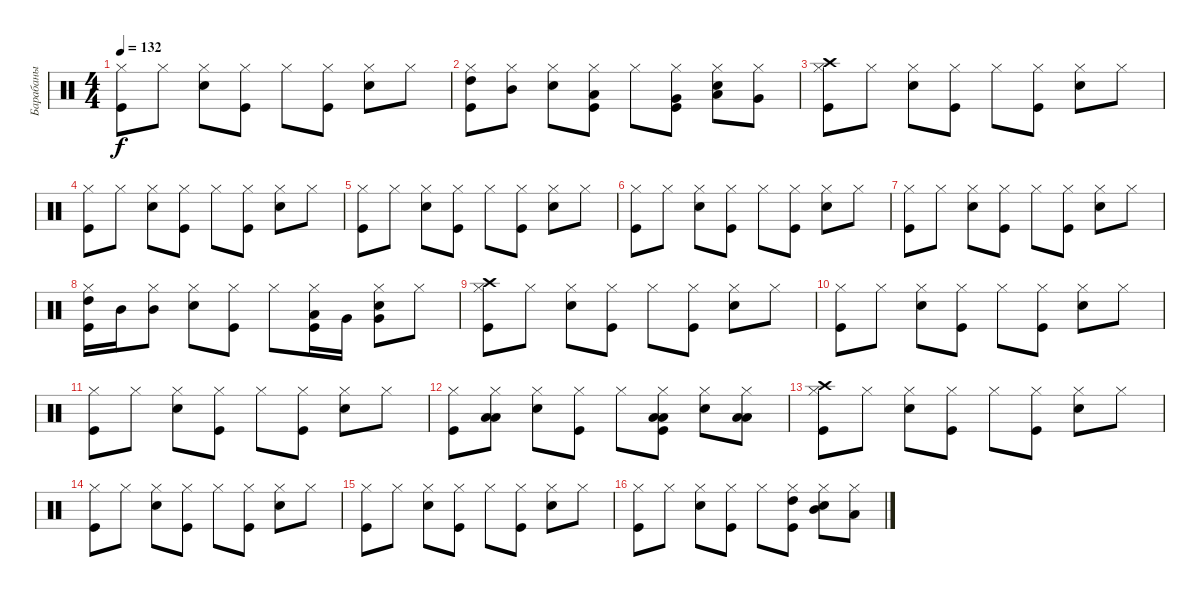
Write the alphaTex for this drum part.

\track ("Барабаны" "Барабаны") {instrument percussion}
\staff {score}
\articulation defaults
\ts (4 4)
\tempo 132
\clef neutral
\ks c
("Kick (hit)" "Hi-Hat (closed)").8{dy f} "Hi-Hat (closed)".8 ("Snare (hit) 2" "Hi-Hat (closed)").8 ("Kick (hit)" "Hi-Hat (closed)").8 "Hi-Hat (closed)".8 ("Kick (hit)" "Hi-Hat (closed)").8 ("Snare (hit) 2" "Hi-Hat (closed)").8 "Hi-Hat (closed)".8 |
("Kick (hit)" "Hi-Hat (closed)" "High Tom (hit)").8 ("Hi-Hat (closed)" "Mid Tom (hit)").8 ("Snare (hit) 2" "Hi-Hat (closed)").8 ("Kick (hit)" "Hi-Hat (closed)" "Low Tom (hit)").8 "Hi-Hat (closed)".8 ("Kick (hit)" "Hi-Hat (closed)" "Very Low Tom (hit)").8 ("Snare (hit) 2" "Hi-Hat (closed)" "Low Floor Tom (hit)").8 ("Hi-Hat (closed)" "Very Low Tom (hit)").8 |
("Kick (hit)" "Hi-Hat (closed)" "Crash high (hit)").8 "Hi-Hat (closed)".8 ("Snare (hit) 2" "Hi-Hat (closed)").8 ("Kick (hit)" "Hi-Hat (closed)").8 "Hi-Hat (closed)".8 ("Kick (hit)" "Hi-Hat (closed)").8 ("Snare (hit) 2" "Hi-Hat (closed)").8 "Hi-Hat (closed)".8 |
("Kick (hit)" "Hi-Hat (closed)").8 "Hi-Hat (closed)".8 ("Snare (hit) 2" "Hi-Hat (closed)").8 ("Kick (hit)" "Hi-Hat (closed)").8 "Hi-Hat (closed)".8 ("Kick (hit)" "Hi-Hat (closed)").8 ("Snare (hit) 2" "Hi-Hat (closed)").8 "Hi-Hat (closed)".8 |
("Kick (hit)" "Hi-Hat (closed)").8 "Hi-Hat (closed)".8 ("Snare (hit) 2" "Hi-Hat (closed)").8 ("Kick (hit)" "Hi-Hat (closed)").8 "Hi-Hat (closed)".8 ("Kick (hit)" "Hi-Hat (closed)").8 ("Snare (hit) 2" "Hi-Hat (closed)").8 "Hi-Hat (closed)".8 |
("Kick (hit)" "Hi-Hat (closed)").8 "Hi-Hat (closed)".8 ("Snare (hit) 2" "Hi-Hat (closed)").8 ("Kick (hit)" "Hi-Hat (closed)").8 "Hi-Hat (closed)".8 ("Kick (hit)" "Hi-Hat (closed)").8 ("Snare (hit) 2" "Hi-Hat (closed)").8 "Hi-Hat (closed)".8 |
("Kick (hit)" "Hi-Hat (closed)").8 "Hi-Hat (closed)".8 ("Snare (hit) 2" "Hi-Hat (closed)").8 ("Kick (hit)" "Hi-Hat (closed)").8 "Hi-Hat (closed)".8 ("Kick (hit)" "Hi-Hat (closed)").8 ("Snare (hit) 2" "Hi-Hat (closed)").8 "Hi-Hat (closed)".8 |
("Kick (hit)" "Hi-Hat (closed)" "High Tom (hit)").16 "Mid Tom (hit)".16 ("Hi-Hat (closed)" "Mid Tom (hit)").8 ("Snare (hit) 2" "Hi-Hat (closed)").8 ("Kick (hit)" "Hi-Hat (closed)").8 "Hi-Hat (closed)".8 ("Kick (hit)" "Hi-Hat (closed)" "Low Tom (hit)").16 "Very Low Tom (hit)".16 ("Snare (hit) 2" "Hi-Hat (closed)" "Very Low Tom (hit)").8 "Hi-Hat (closed)".8 |
("Kick (hit)" "Hi-Hat (closed)" "Crash high (hit)").8 "Hi-Hat (closed)".8 ("Snare (hit) 2" "Hi-Hat (closed)").8 ("Kick (hit)" "Hi-Hat (closed)").8 "Hi-Hat (closed)".8 ("Kick (hit)" "Hi-Hat (closed)").8 ("Snare (hit) 2" "Hi-Hat (closed)").8 "Hi-Hat (closed)".8 |
("Kick (hit)" "Hi-Hat (closed)").8 "Hi-Hat (closed)".8 ("Snare (hit) 2" "Hi-Hat (closed)").8 ("Kick (hit)" "Hi-Hat (closed)").8 "Hi-Hat (closed)".8 ("Kick (hit)" "Hi-Hat (closed)").8 ("Snare (hit) 2" "Hi-Hat (closed)").8 "Hi-Hat (closed)".8 |
("Kick (hit)" "Hi-Hat (closed)").8 "Hi-Hat (closed)".8 ("Snare (hit) 2" "Hi-Hat (closed)").8 ("Kick (hit)" "Hi-Hat (closed)").8 "Hi-Hat (closed)".8 ("Kick (hit)" "Hi-Hat (closed)").8 ("Snare (hit) 2" "Hi-Hat (closed)").8 "Hi-Hat (closed)".8 |
("Kick (hit)" "Hi-Hat (closed)").8 ("Hi-Hat (closed)" "Low Tom (hit)" "Low Tom (hit)").8 ("Snare (hit) 2" "Hi-Hat (closed)").8 ("Kick (hit)" "Hi-Hat (closed)").8 "Hi-Hat (closed)".8 ("Kick (hit)" "Hi-Hat (closed)" "Low Tom (hit)" "Low Tom (hit)").8 ("Snare (hit) 2" "Hi-Hat (closed)").8 ("Hi-Hat (closed)" "Low Tom (hit)" "Low Tom (hit)").8 |
("Kick (hit)" "Hi-Hat (closed)" "Crash high (hit)").8{volume 12} "Hi-Hat (closed)".8 ("Snare (hit) 2" "Hi-Hat (closed)").8 ("Kick (hit)" "Hi-Hat (closed)").8 "Hi-Hat (closed)".8 ("Kick (hit)" "Hi-Hat (closed)").8 ("Snare (hit) 2" "Hi-Hat (closed)").8 "Hi-Hat (closed)".8 |
("Kick (hit)" "Hi-Hat (closed)").8 "Hi-Hat (closed)".8 ("Snare (hit) 2" "Hi-Hat (closed)").8 ("Kick (hit)" "Hi-Hat (closed)").8 "Hi-Hat (closed)".8 ("Kick (hit)" "Hi-Hat (closed)").8 ("Snare (hit) 2" "Hi-Hat (closed)").8 "Hi-Hat (closed)".8 |
("Kick (hit)" "Hi-Hat (closed)").8 "Hi-Hat (closed)".8 ("Snare (hit) 2" "Hi-Hat (closed)").8 ("Kick (hit)" "Hi-Hat (closed)").8 "Hi-Hat (closed)".8 ("Kick (hit)" "Hi-Hat (closed)").8 ("Snare (hit) 2" "Hi-Hat (closed)").8 "Hi-Hat (closed)".8 |
("Kick (hit)" "Hi-Hat (closed)").8 "Hi-Hat (closed)".8 ("Snare (hit) 2" "Hi-Hat (closed)").8 ("Kick (hit)" "Hi-Hat (closed)").8 "Hi-Hat (closed)".8 ("Kick (hit)" "Hi-Hat (closed)" "High Tom (hit)").8 ("Snare (hit) 2" "Hi-Hat (closed)" "Mid Tom (hit)").8 ("Hi-Hat (closed)" "Low Tom (hit)").8
